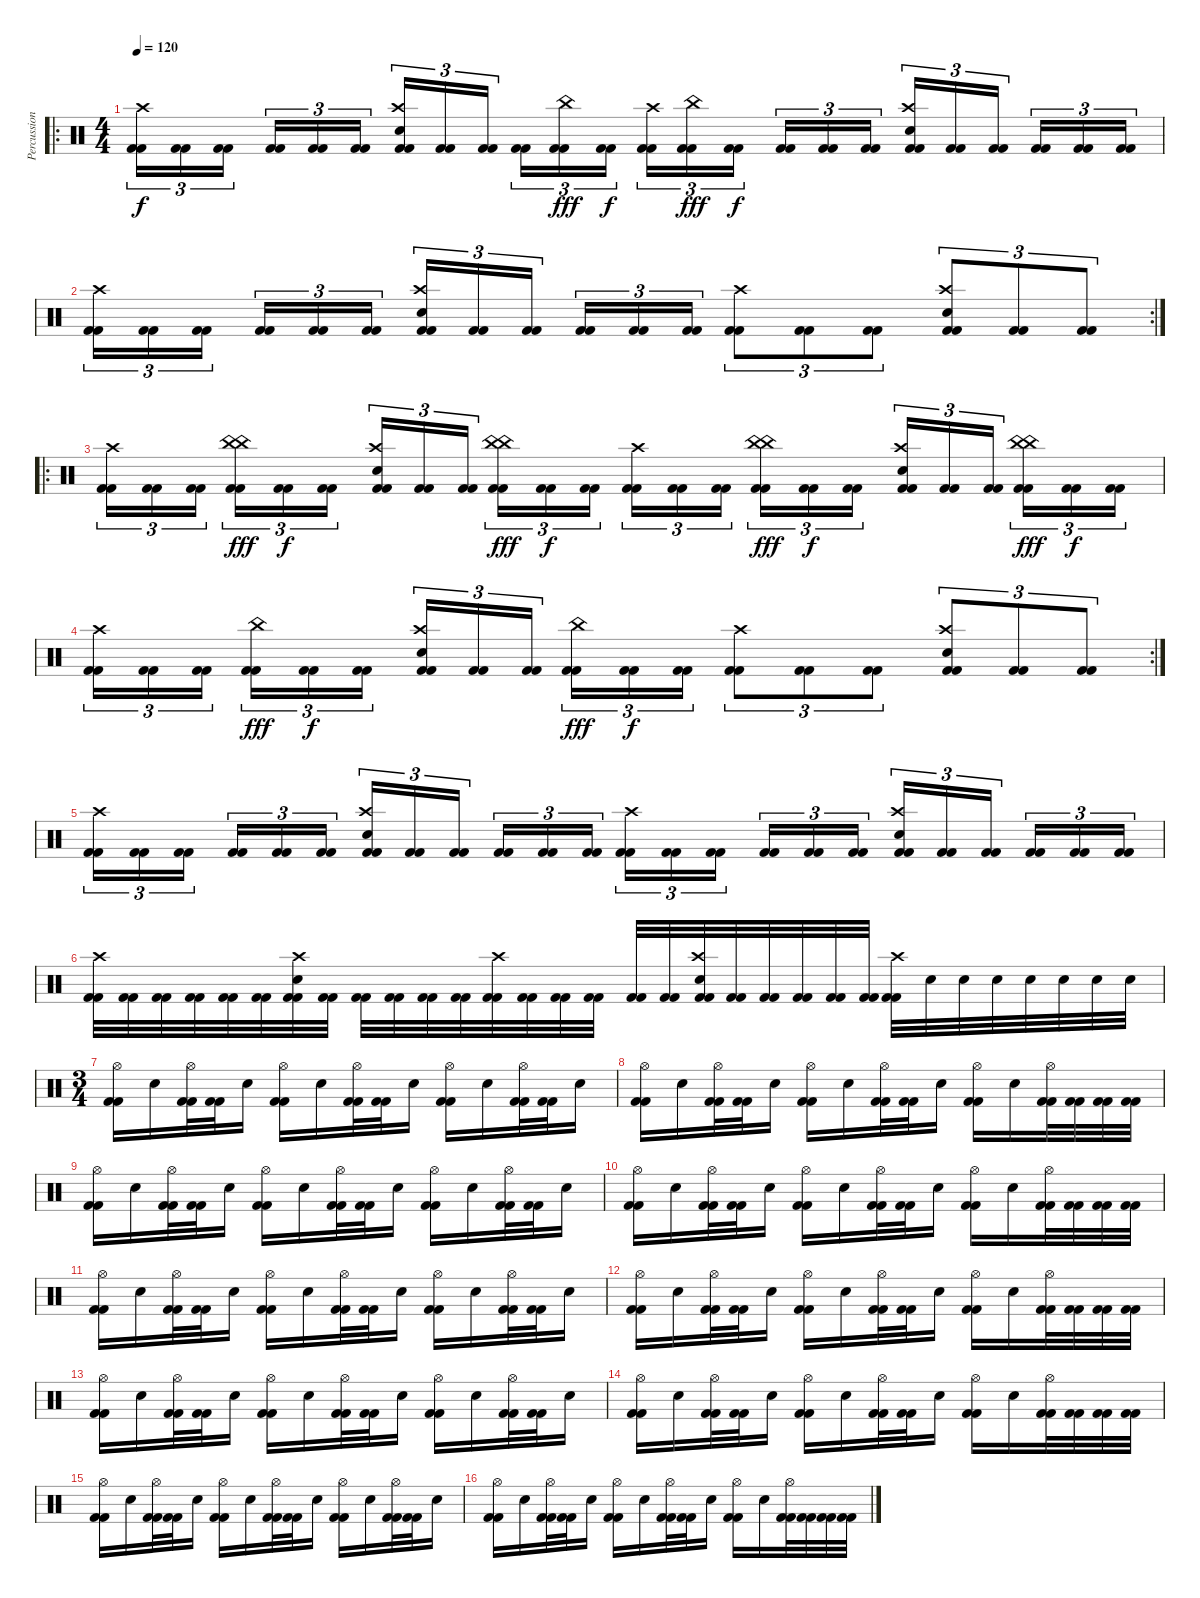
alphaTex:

\track ("Percussions" "Percussion") {instrument percussion}
\staff {score}
\articulation defaults
\ro
\ts (4 4)
\tempo 120
\clef neutral
\ks c
("Kick (hit) 2" "Kick (hit) 2" "Crash high (hit)").16{tu (3 2) dy f} ("Kick (hit) 2" "Kick (hit) 2").16{tu (3 2)} ("Kick (hit) 2" "Kick (hit) 2").16{tu (3 2)} ("Kick (hit) 2" "Kick (hit) 2").16{tu (3 2)} ("Kick (hit) 2" "Kick (hit) 2").16{tu (3 2)} ("Kick (hit) 2" "Kick (hit) 2").16{tu (3 2)} ("Kick (hit) 2" "Kick (hit) 2" "Electric Snare (hit)" "Crash high (hit)").16{tu (3 2)} ("Kick (hit) 2" "Kick (hit) 2").16{tu (3 2)} ("Kick (hit) 2" "Kick (hit) 2").16{tu (3 2)} ("Kick (hit) 2" "Kick (hit) 2").16{tu (3 2)} ("Kick (hit) 2" "Kick (hit) 2" "China (hit)").16{tu (3 2) dy fff} ("Kick (hit) 2" "Kick (hit) 2").16{tu (3 2) dy f} ("Kick (hit) 2" "Kick (hit) 2" "Crash high (hit)").16{tu (3 2)} ("Kick (hit) 2" "Kick (hit) 2" "China (hit)").16{tu (3 2) dy fff} ("Kick (hit) 2" "Kick (hit) 2").16{tu (3 2) dy f} ("Kick (hit) 2" "Kick (hit) 2").16{tu (3 2)} ("Kick (hit) 2" "Kick (hit) 2").16{tu (3 2)} ("Kick (hit) 2" "Kick (hit) 2").16{tu (3 2)} ("Kick (hit) 2" "Kick (hit) 2" "Electric Snare (hit)" "Crash high (hit)").16{tu (3 2)} ("Kick (hit) 2" "Kick (hit) 2").16{tu (3 2)} ("Kick (hit) 2" "Kick (hit) 2").16{tu (3 2)} ("Kick (hit) 2" "Kick (hit) 2").16{tu (3 2)} ("Kick (hit) 2" "Kick (hit) 2").16{tu (3 2)} ("Kick (hit) 2" "Kick (hit) 2").16{tu (3 2)} |
\rc 2
("Kick (hit) 2" "Kick (hit) 2" "Crash high (hit)").16{tu (3 2)} ("Kick (hit) 2" "Kick (hit) 2").16{tu (3 2)} ("Kick (hit) 2" "Kick (hit) 2").16{tu (3 2)} ("Kick (hit) 2" "Kick (hit) 2").16{tu (3 2)} ("Kick (hit) 2" "Kick (hit) 2").16{tu (3 2)} ("Kick (hit) 2" "Kick (hit) 2").16{tu (3 2)} ("Kick (hit) 2" "Kick (hit) 2" "Electric Snare (hit)" "Crash high (hit)").16{tu (3 2)} ("Kick (hit) 2" "Kick (hit) 2").16{tu (3 2)} ("Kick (hit) 2" "Kick (hit) 2").16{tu (3 2)} ("Kick (hit) 2" "Kick (hit) 2").16{tu (3 2)} ("Kick (hit) 2" "Kick (hit) 2").16{tu (3 2)} ("Kick (hit) 2" "Kick (hit) 2").16{tu (3 2)} ("Kick (hit) 2" "Kick (hit) 2" "Crash high (hit)").8{tu (3 2)} ("Kick (hit) 2" "Kick (hit) 2").8{tu (3 2)} ("Kick (hit) 2" "Kick (hit) 2").8{tu (3 2)} ("Kick (hit) 2" "Kick (hit) 2" "Electric Snare (hit)" "Crash high (hit)").8{tu (3 2)} ("Kick (hit) 2" "Kick (hit) 2").8{tu (3 2)} ("Kick (hit) 2" "Kick (hit) 2").8{tu (3 2)} |
\ro
("Kick (hit) 2" "Kick (hit) 2" "Crash high (hit)").16{tu (3 2)} ("Kick (hit) 2" "Kick (hit) 2").16{tu (3 2)} ("Kick (hit) 2" "Kick (hit) 2").16{tu (3 2)} ("Kick (hit) 2" "Kick (hit) 2" "China (hit)" "China (hit)").16{tu (3 2) dy fff} ("Kick (hit) 2" "Kick (hit) 2").16{tu (3 2) dy f} ("Kick (hit) 2" "Kick (hit) 2").16{tu (3 2)} ("Kick (hit) 2" "Kick (hit) 2" "Electric Snare (hit)" "Crash high (hit)").16{tu (3 2)} ("Kick (hit) 2" "Kick (hit) 2").16{tu (3 2)} ("Kick (hit) 2" "Kick (hit) 2").16{tu (3 2)} ("Kick (hit) 2" "Kick (hit) 2" "China (hit)" "China (hit)").16{tu (3 2) dy fff} ("Kick (hit) 2" "Kick (hit) 2").16{tu (3 2) dy f} ("Kick (hit) 2" "Kick (hit) 2").16{tu (3 2)} ("Kick (hit) 2" "Kick (hit) 2" "Crash high (hit)").16{tu (3 2)} ("Kick (hit) 2" "Kick (hit) 2").16{tu (3 2)} ("Kick (hit) 2" "Kick (hit) 2").16{tu (3 2)} ("Kick (hit) 2" "Kick (hit) 2" "China (hit)" "China (hit)").16{tu (3 2) dy fff} ("Kick (hit) 2" "Kick (hit) 2").16{tu (3 2) dy f} ("Kick (hit) 2" "Kick (hit) 2").16{tu (3 2)} ("Kick (hit) 2" "Kick (hit) 2" "Electric Snare (hit)" "Crash high (hit)").16{tu (3 2)} ("Kick (hit) 2" "Kick (hit) 2").16{tu (3 2)} ("Kick (hit) 2" "Kick (hit) 2").16{tu (3 2)} ("Kick (hit) 2" "Kick (hit) 2" "China (hit)" "China (hit)").16{tu (3 2) dy fff} ("Kick (hit) 2" "Kick (hit) 2").16{tu (3 2) dy f} ("Kick (hit) 2" "Kick (hit) 2").16{tu (3 2)} |
\rc 2
("Kick (hit) 2" "Kick (hit) 2" "Crash high (hit)").16{tu (3 2)} ("Kick (hit) 2" "Kick (hit) 2").16{tu (3 2)} ("Kick (hit) 2" "Kick (hit) 2").16{tu (3 2)} ("Kick (hit) 2" "Kick (hit) 2" "China (hit)").16{tu (3 2) dy fff} ("Kick (hit) 2" "Kick (hit) 2").16{tu (3 2) dy f} ("Kick (hit) 2" "Kick (hit) 2").16{tu (3 2)} ("Kick (hit) 2" "Kick (hit) 2" "Electric Snare (hit)" "Crash high (hit)").16{tu (3 2)} ("Kick (hit) 2" "Kick (hit) 2").16{tu (3 2)} ("Kick (hit) 2" "Kick (hit) 2").16{tu (3 2)} ("Kick (hit) 2" "Kick (hit) 2" "China (hit)").16{tu (3 2) dy fff} ("Kick (hit) 2" "Kick (hit) 2").16{tu (3 2) dy f} ("Kick (hit) 2" "Kick (hit) 2").16{tu (3 2)} ("Kick (hit) 2" "Kick (hit) 2" "Crash high (hit)").8{tu (3 2)} ("Kick (hit) 2" "Kick (hit) 2").8{tu (3 2)} ("Kick (hit) 2" "Kick (hit) 2").8{tu (3 2)} ("Kick (hit) 2" "Kick (hit) 2" "Electric Snare (hit)" "Crash high (hit)").8{tu (3 2)} ("Kick (hit) 2" "Kick (hit) 2").8{tu (3 2)} ("Kick (hit) 2" "Kick (hit) 2").8{tu (3 2)} |
("Kick (hit) 2" "Kick (hit) 2" "Crash high (hit)").16{tu (3 2)} ("Kick (hit) 2" "Kick (hit) 2").16{tu (3 2)} ("Kick (hit) 2" "Kick (hit) 2").16{tu (3 2)} ("Kick (hit) 2" "Kick (hit) 2").16{tu (3 2)} ("Kick (hit) 2" "Kick (hit) 2").16{tu (3 2)} ("Kick (hit) 2" "Kick (hit) 2").16{tu (3 2)} ("Kick (hit) 2" "Kick (hit) 2" "Electric Snare (hit)" "Crash high (hit)").16{tu (3 2)} ("Kick (hit) 2" "Kick (hit) 2").16{tu (3 2)} ("Kick (hit) 2" "Kick (hit) 2").16{tu (3 2)} ("Kick (hit) 2" "Kick (hit) 2").16{tu (3 2)} ("Kick (hit) 2" "Kick (hit) 2").16{tu (3 2)} ("Kick (hit) 2" "Kick (hit) 2").16{tu (3 2)} ("Kick (hit) 2" "Kick (hit) 2" "Crash high (hit)").16{tu (3 2)} ("Kick (hit) 2" "Kick (hit) 2").16{tu (3 2)} ("Kick (hit) 2" "Kick (hit) 2").16{tu (3 2)} ("Kick (hit) 2" "Kick (hit) 2").16{tu (3 2)} ("Kick (hit) 2" "Kick (hit) 2").16{tu (3 2)} ("Kick (hit) 2" "Kick (hit) 2").16{tu (3 2)} ("Kick (hit) 2" "Kick (hit) 2" "Electric Snare (hit)" "Crash high (hit)").16{tu (3 2)} ("Kick (hit) 2" "Kick (hit) 2").16{tu (3 2)} ("Kick (hit) 2" "Kick (hit) 2").16{tu (3 2)} ("Kick (hit) 2" "Kick (hit) 2").16{tu (3 2)} ("Kick (hit) 2" "Kick (hit) 2").16{tu (3 2)} ("Kick (hit) 2" "Kick (hit) 2").16{tu (3 2)} |
("Kick (hit) 2" "Kick (hit) 2" "Crash high (hit)").32 ("Kick (hit) 2" "Kick (hit) 2").32 ("Kick (hit) 2" "Kick (hit) 2").32 ("Kick (hit) 2" "Kick (hit) 2").32 ("Kick (hit) 2" "Kick (hit) 2").32 ("Kick (hit) 2" "Kick (hit) 2").32 ("Kick (hit) 2" "Kick (hit) 2" "Electric Snare (hit)" "Crash high (hit)").32 ("Kick (hit) 2" "Kick (hit) 2").32 ("Kick (hit) 2" "Kick (hit) 2").32 ("Kick (hit) 2" "Kick (hit) 2").32 ("Kick (hit) 2" "Kick (hit) 2").32 ("Kick (hit) 2" "Kick (hit) 2").32 ("Kick (hit) 2" "Kick (hit) 2" "Crash high (hit)").32 ("Kick (hit) 2" "Kick (hit) 2").32 ("Kick (hit) 2" "Kick (hit) 2").32 ("Kick (hit) 2" "Kick (hit) 2").32 ("Kick (hit) 2" "Kick (hit) 2").32 ("Kick (hit) 2" "Kick (hit) 2").32 ("Kick (hit) 2" "Kick (hit) 2" "Electric Snare (hit)" "Crash high (hit)").32 ("Kick (hit) 2" "Kick (hit) 2").32 ("Kick (hit) 2" "Kick (hit) 2").32 ("Kick (hit) 2" "Kick (hit) 2").32 ("Kick (hit) 2" "Kick (hit) 2").32 ("Kick (hit) 2" "Kick (hit) 2").32 ("Kick (hit) 2" "Kick (hit) 2" "Crash high (hit)").32 "Electric Snare (hit)".32 "Electric Snare (hit)".32 "Electric Snare (hit)".32 "Electric Snare (hit)".32 "Electric Snare (hit)".32 "Electric Snare (hit)".32 "Electric Snare (hit)".32 |
\ts (3 4)
("Kick (hit) 2" "Kick (hit) 2" "Hi-Hat (open)").16 "Electric Snare (hit)".16 ("Kick (hit) 2" "Kick (hit) 2" "Hi-Hat (open)").32 ("Kick (hit) 2" "Kick (hit) 2").32 "Electric Snare (hit)".16 ("Kick (hit) 2" "Kick (hit) 2" "Hi-Hat (open)").16 "Electric Snare (hit)".16 ("Kick (hit) 2" "Kick (hit) 2" "Hi-Hat (open)").32 ("Kick (hit) 2" "Kick (hit) 2").32 "Electric Snare (hit)".16 ("Kick (hit) 2" "Kick (hit) 2" "Hi-Hat (open)").16 "Electric Snare (hit)".16 ("Kick (hit) 2" "Kick (hit) 2" "Hi-Hat (open)").32 ("Kick (hit) 2" "Kick (hit) 2").32 "Electric Snare (hit)".16 |
("Kick (hit) 2" "Kick (hit) 2" "Hi-Hat (open)").16 "Electric Snare (hit)".16 ("Kick (hit) 2" "Kick (hit) 2" "Hi-Hat (open)").32 ("Kick (hit) 2" "Kick (hit) 2").32 "Electric Snare (hit)".16 ("Kick (hit) 2" "Kick (hit) 2" "Hi-Hat (open)").16 "Electric Snare (hit)".16 ("Kick (hit) 2" "Kick (hit) 2" "Hi-Hat (open)").32 ("Kick (hit) 2" "Kick (hit) 2").32 "Electric Snare (hit)".16 ("Kick (hit) 2" "Kick (hit) 2" "Hi-Hat (open)").16 "Electric Snare (hit)".16 ("Kick (hit) 2" "Kick (hit) 2" "Hi-Hat (open)").32 ("Kick (hit) 2" "Kick (hit) 2").32 ("Kick (hit) 2" "Kick (hit) 2").32 ("Kick (hit) 2" "Kick (hit) 2").32 |
("Kick (hit) 2" "Kick (hit) 2" "Hi-Hat (open)").16 "Electric Snare (hit)".16 ("Kick (hit) 2" "Kick (hit) 2" "Hi-Hat (open)").32 ("Kick (hit) 2" "Kick (hit) 2").32 "Electric Snare (hit)".16 ("Kick (hit) 2" "Kick (hit) 2" "Hi-Hat (open)").16 "Electric Snare (hit)".16 ("Kick (hit) 2" "Kick (hit) 2" "Hi-Hat (open)").32 ("Kick (hit) 2" "Kick (hit) 2").32 "Electric Snare (hit)".16 ("Kick (hit) 2" "Kick (hit) 2" "Hi-Hat (open)").16 "Electric Snare (hit)".16 ("Kick (hit) 2" "Kick (hit) 2" "Hi-Hat (open)").32 ("Kick (hit) 2" "Kick (hit) 2").32 "Electric Snare (hit)".16 |
("Kick (hit) 2" "Kick (hit) 2" "Hi-Hat (open)").16 "Electric Snare (hit)".16 ("Kick (hit) 2" "Kick (hit) 2" "Hi-Hat (open)").32 ("Kick (hit) 2" "Kick (hit) 2").32 "Electric Snare (hit)".16 ("Kick (hit) 2" "Kick (hit) 2" "Hi-Hat (open)").16 "Electric Snare (hit)".16 ("Kick (hit) 2" "Kick (hit) 2" "Hi-Hat (open)").32 ("Kick (hit) 2" "Kick (hit) 2").32 "Electric Snare (hit)".16 ("Kick (hit) 2" "Kick (hit) 2" "Hi-Hat (open)").16 "Electric Snare (hit)".16 ("Kick (hit) 2" "Kick (hit) 2" "Hi-Hat (open)").32 ("Kick (hit) 2" "Kick (hit) 2").32 ("Kick (hit) 2" "Kick (hit) 2").32 ("Kick (hit) 2" "Kick (hit) 2").32 |
("Kick (hit) 2" "Kick (hit) 2" "Hi-Hat (open)").16 "Electric Snare (hit)".16 ("Kick (hit) 2" "Kick (hit) 2" "Hi-Hat (open)").32 ("Kick (hit) 2" "Kick (hit) 2").32 "Electric Snare (hit)".16 ("Kick (hit) 2" "Kick (hit) 2" "Hi-Hat (open)").16 "Electric Snare (hit)".16 ("Kick (hit) 2" "Kick (hit) 2" "Hi-Hat (open)").32 ("Kick (hit) 2" "Kick (hit) 2").32 "Electric Snare (hit)".16 ("Kick (hit) 2" "Kick (hit) 2" "Hi-Hat (open)").16 "Electric Snare (hit)".16 ("Kick (hit) 2" "Kick (hit) 2" "Hi-Hat (open)").32 ("Kick (hit) 2" "Kick (hit) 2").32 "Electric Snare (hit)".16 |
("Kick (hit) 2" "Kick (hit) 2" "Hi-Hat (open)").16 "Electric Snare (hit)".16 ("Kick (hit) 2" "Kick (hit) 2" "Hi-Hat (open)").32 ("Kick (hit) 2" "Kick (hit) 2").32 "Electric Snare (hit)".16 ("Kick (hit) 2" "Kick (hit) 2" "Hi-Hat (open)").16 "Electric Snare (hit)".16 ("Kick (hit) 2" "Kick (hit) 2" "Hi-Hat (open)").32 ("Kick (hit) 2" "Kick (hit) 2").32 "Electric Snare (hit)".16 ("Kick (hit) 2" "Kick (hit) 2" "Hi-Hat (open)").16 "Electric Snare (hit)".16 ("Kick (hit) 2" "Kick (hit) 2" "Hi-Hat (open)").32 ("Kick (hit) 2" "Kick (hit) 2").32 ("Kick (hit) 2" "Kick (hit) 2").32 ("Kick (hit) 2" "Kick (hit) 2").32 |
("Kick (hit) 2" "Kick (hit) 2" "Hi-Hat (open)").16 "Electric Snare (hit)".16 ("Kick (hit) 2" "Kick (hit) 2" "Hi-Hat (open)").32 ("Kick (hit) 2" "Kick (hit) 2").32 "Electric Snare (hit)".16 ("Kick (hit) 2" "Kick (hit) 2" "Hi-Hat (open)").16 "Electric Snare (hit)".16 ("Kick (hit) 2" "Kick (hit) 2" "Hi-Hat (open)").32 ("Kick (hit) 2" "Kick (hit) 2").32 "Electric Snare (hit)".16 ("Kick (hit) 2" "Kick (hit) 2" "Hi-Hat (open)").16 "Electric Snare (hit)".16 ("Kick (hit) 2" "Kick (hit) 2" "Hi-Hat (open)").32 ("Kick (hit) 2" "Kick (hit) 2").32 "Electric Snare (hit)".16 |
("Kick (hit) 2" "Kick (hit) 2" "Hi-Hat (open)").16 "Electric Snare (hit)".16 ("Kick (hit) 2" "Kick (hit) 2" "Hi-Hat (open)").32 ("Kick (hit) 2" "Kick (hit) 2").32 "Electric Snare (hit)".16 ("Kick (hit) 2" "Kick (hit) 2" "Hi-Hat (open)").16 "Electric Snare (hit)".16 ("Kick (hit) 2" "Kick (hit) 2" "Hi-Hat (open)").32 ("Kick (hit) 2" "Kick (hit) 2").32 "Electric Snare (hit)".16 ("Kick (hit) 2" "Kick (hit) 2" "Hi-Hat (open)").16 "Electric Snare (hit)".16 ("Kick (hit) 2" "Kick (hit) 2" "Hi-Hat (open)").32 ("Kick (hit) 2" "Kick (hit) 2").32 ("Kick (hit) 2" "Kick (hit) 2").32 ("Kick (hit) 2" "Kick (hit) 2").32 |
("Kick (hit) 2" "Kick (hit) 2" "Hi-Hat (open)").16 "Electric Snare (hit)".16 ("Kick (hit) 2" "Kick (hit) 2" "Hi-Hat (open)").32 ("Kick (hit) 2" "Kick (hit) 2").32 "Electric Snare (hit)".16 ("Kick (hit) 2" "Kick (hit) 2" "Hi-Hat (open)").16 "Electric Snare (hit)".16 ("Kick (hit) 2" "Kick (hit) 2" "Hi-Hat (open)").32 ("Kick (hit) 2" "Kick (hit) 2").32 "Electric Snare (hit)".16 ("Kick (hit) 2" "Kick (hit) 2" "Hi-Hat (open)").16 "Electric Snare (hit)".16 ("Kick (hit) 2" "Kick (hit) 2" "Hi-Hat (open)").32 ("Kick (hit) 2" "Kick (hit) 2").32 "Electric Snare (hit)".16 |
("Kick (hit) 2" "Kick (hit) 2" "Hi-Hat (open)").16 "Electric Snare (hit)".16 ("Kick (hit) 2" "Kick (hit) 2" "Hi-Hat (open)").32 ("Kick (hit) 2" "Kick (hit) 2").32 "Electric Snare (hit)".16 ("Kick (hit) 2" "Kick (hit) 2" "Hi-Hat (open)").16 "Electric Snare (hit)".16 ("Kick (hit) 2" "Kick (hit) 2" "Hi-Hat (open)").32 ("Kick (hit) 2" "Kick (hit) 2").32 "Electric Snare (hit)".16 ("Kick (hit) 2" "Kick (hit) 2" "Hi-Hat (open)").16 "Electric Snare (hit)".16 ("Kick (hit) 2" "Kick (hit) 2" "Hi-Hat (open)").32 ("Kick (hit) 2" "Kick (hit) 2").32 ("Kick (hit) 2" "Kick (hit) 2").32 ("Kick (hit) 2" "Kick (hit) 2").32
